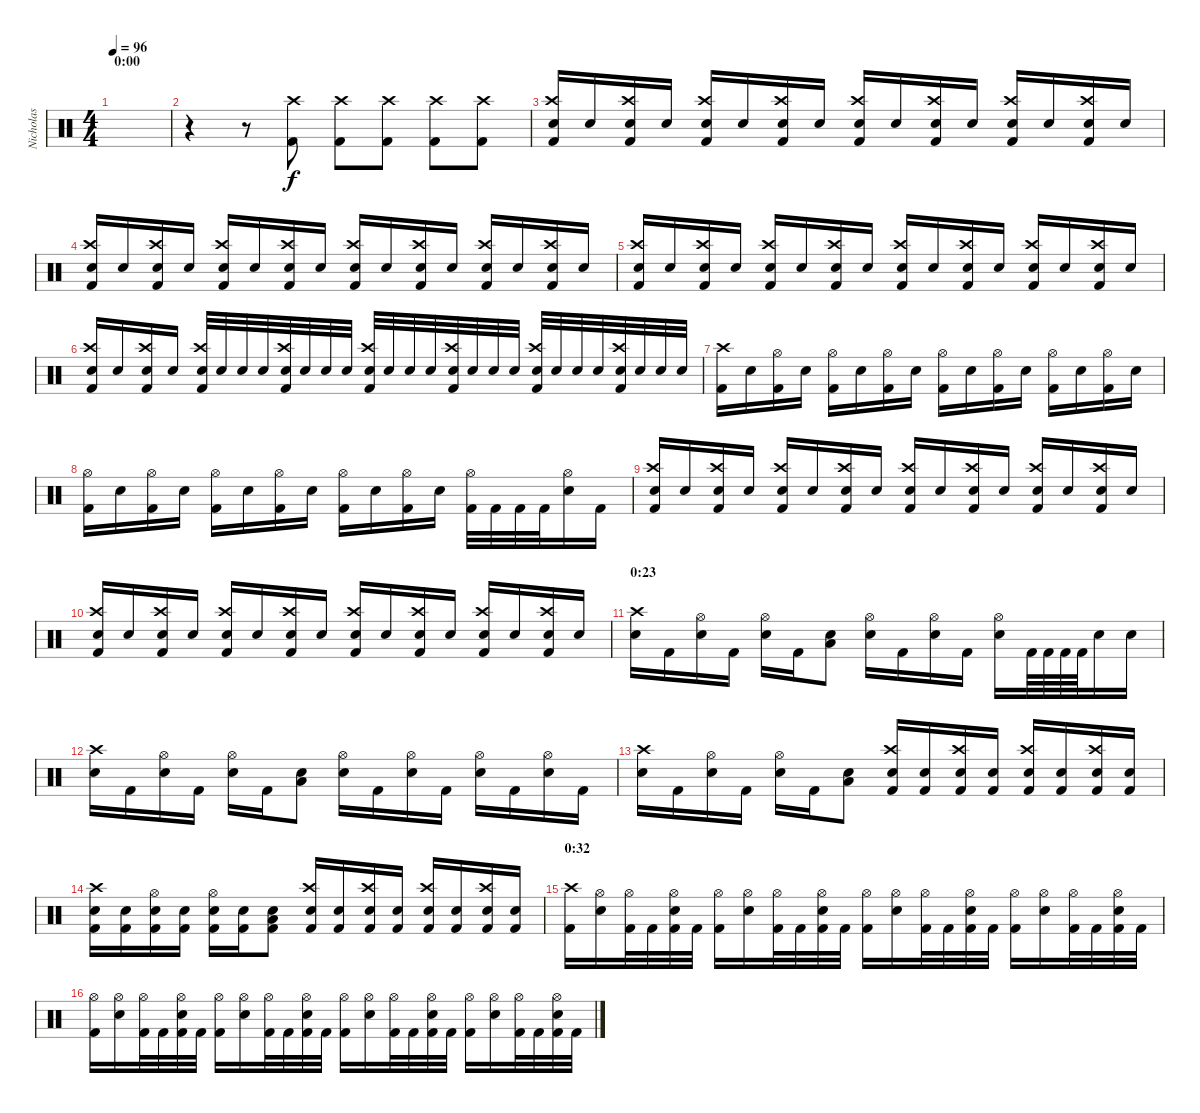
\track ("Nicholas" "Nicholas") {instrument percussion}
\staff {score}
\articulation defaults
\ts (4 4)
\section ("" "0:00")
\tempo 96
\clef neutral
\ks c
|
r.4 r.8 ("Kick (hit) 2" "Crash high (hit)").8 ("Kick (hit) 2" "Crash high (hit)").8 ("Kick (hit) 2" "Crash high (hit)").8 ("Kick (hit) 2" "Crash high (hit)").8 ("Kick (hit) 2" "Crash high (hit)").8 |
("Kick (hit) 2" "Snare (hit) 2" "Crash high (hit)").16 "Snare (hit) 2".16 ("Kick (hit) 2" "Snare (hit) 2" "Crash high (hit)").16 "Snare (hit) 2".16 ("Kick (hit) 2" "Snare (hit) 2" "Crash high (hit)").16 "Snare (hit) 2".16 ("Kick (hit) 2" "Snare (hit) 2" "Crash high (hit)").16 "Snare (hit) 2".16 ("Kick (hit) 2" "Snare (hit) 2" "Crash high (hit)").16 "Snare (hit) 2".16 ("Kick (hit) 2" "Snare (hit) 2" "Crash high (hit)").16 "Snare (hit) 2".16 ("Kick (hit) 2" "Snare (hit) 2" "Crash high (hit)").16 "Snare (hit) 2".16 ("Kick (hit) 2" "Snare (hit) 2" "Crash high (hit)").16 "Snare (hit) 2".16 |
("Kick (hit) 2" "Snare (hit) 2" "Crash high (hit)").16 "Snare (hit) 2".16 ("Kick (hit) 2" "Snare (hit) 2" "Crash high (hit)").16 "Snare (hit) 2".16 ("Kick (hit) 2" "Snare (hit) 2" "Crash high (hit)").16 "Snare (hit) 2".16 ("Kick (hit) 2" "Snare (hit) 2" "Crash high (hit)").16 "Snare (hit) 2".16 ("Kick (hit) 2" "Snare (hit) 2" "Crash high (hit)").16 "Snare (hit) 2".16 ("Kick (hit) 2" "Snare (hit) 2" "Crash high (hit)").16 "Snare (hit) 2".16 ("Kick (hit) 2" "Snare (hit) 2" "Crash high (hit)").16 "Snare (hit) 2".16 ("Kick (hit) 2" "Snare (hit) 2" "Crash high (hit)").16 "Snare (hit) 2".16 |
("Kick (hit) 2" "Snare (hit) 2" "Crash high (hit)").16 "Snare (hit) 2".16 ("Kick (hit) 2" "Snare (hit) 2" "Crash high (hit)").16 "Snare (hit) 2".16 ("Kick (hit) 2" "Snare (hit) 2" "Crash high (hit)").16 "Snare (hit) 2".16 ("Kick (hit) 2" "Snare (hit) 2" "Crash high (hit)").16 "Snare (hit) 2".16 ("Kick (hit) 2" "Snare (hit) 2" "Crash high (hit)").16 "Snare (hit) 2".16 ("Kick (hit) 2" "Snare (hit) 2" "Crash high (hit)").16 "Snare (hit) 2".16 ("Kick (hit) 2" "Snare (hit) 2" "Crash high (hit)").16 "Snare (hit) 2".16 ("Kick (hit) 2" "Snare (hit) 2" "Crash high (hit)").16 "Snare (hit) 2".16 |
("Kick (hit) 2" "Snare (hit) 2" "Crash high (hit)").16 "Snare (hit) 2".16 ("Kick (hit) 2" "Snare (hit) 2" "Crash high (hit)").16 "Snare (hit) 2".16 ("Kick (hit) 2" "Snare (hit) 2" "Crash high (hit)").32 "Snare (hit) 2".32 "Snare (hit) 2".32 "Snare (hit) 2".32 ("Kick (hit) 2" "Snare (hit) 2" "Crash high (hit)").32 "Snare (hit) 2".32 "Snare (hit) 2".32 "Snare (hit) 2".32 ("Kick (hit) 2" "Snare (hit) 2" "Crash high (hit)").32 "Snare (hit) 2".32 "Snare (hit) 2".32 "Snare (hit) 2".32 ("Kick (hit) 2" "Snare (hit) 2" "Crash high (hit)").32 "Snare (hit) 2".32 "Snare (hit) 2".32 "Snare (hit) 2".32 ("Kick (hit) 2" "Snare (hit) 2" "Crash high (hit)").32 "Snare (hit) 2".32 "Snare (hit) 2".32 "Snare (hit) 2".32 ("Kick (hit) 2" "Snare (hit) 2" "Crash high (hit)").32 "Snare (hit) 2".32 "Snare (hit) 2".32 "Snare (hit) 2".32 |
("Kick (hit) 2" "Crash high (hit)").16 "Snare (hit) 2".16 ("Kick (hit) 2" "Hi-Hat (open)").16 "Snare (hit) 2".16 ("Kick (hit) 2" "Hi-Hat (open)").16 "Snare (hit) 2".16 ("Kick (hit) 2" "Hi-Hat (open)").16 "Snare (hit) 2".16 ("Kick (hit) 2" "Hi-Hat (open)").16 "Snare (hit) 2".16 ("Kick (hit) 2" "Hi-Hat (open)").16 "Snare (hit) 2".16 ("Kick (hit) 2" "Hi-Hat (open)").16 "Snare (hit) 2".16 ("Kick (hit) 2" "Hi-Hat (open)").16 "Snare (hit) 2".16 |
("Kick (hit) 2" "Hi-Hat (open)").16 "Snare (hit) 2".16 ("Kick (hit) 2" "Hi-Hat (open)").16 "Snare (hit) 2".16 ("Kick (hit) 2" "Hi-Hat (open)").16 "Snare (hit) 2".16 ("Kick (hit) 2" "Hi-Hat (open)").16 "Snare (hit) 2".16 ("Kick (hit) 2" "Hi-Hat (open)").16 "Snare (hit) 2".16 ("Kick (hit) 2" "Hi-Hat (open)").16 "Snare (hit) 2".16 ("Kick (hit) 2" "Hi-Hat (open)").32 "Kick (hit) 2".32 "Kick (hit) 2".32 "Kick (hit) 2".32 ("Snare (hit) 2" "Hi-Hat (open)").16 "Kick (hit) 2".16 |
("Kick (hit) 2" "Snare (hit) 2" "Crash high (hit)").16 "Snare (hit) 2".16 ("Kick (hit) 2" "Snare (hit) 2" "Crash high (hit)").16 "Snare (hit) 2".16 ("Kick (hit) 2" "Snare (hit) 2" "Crash high (hit)").16 "Snare (hit) 2".16 ("Kick (hit) 2" "Snare (hit) 2" "Crash high (hit)").16 "Snare (hit) 2".16 ("Kick (hit) 2" "Snare (hit) 2" "Crash high (hit)").16 "Snare (hit) 2".16 ("Kick (hit) 2" "Snare (hit) 2" "Crash high (hit)").16 "Snare (hit) 2".16 ("Kick (hit) 2" "Snare (hit) 2" "Crash high (hit)").16 "Snare (hit) 2".16 ("Kick (hit) 2" "Snare (hit) 2" "Crash high (hit)").16 "Snare (hit) 2".16 |
("Kick (hit) 2" "Snare (hit) 2" "Crash high (hit)").16 "Snare (hit) 2".16 ("Kick (hit) 2" "Snare (hit) 2" "Crash high (hit)").16 "Snare (hit) 2".16 ("Kick (hit) 2" "Snare (hit) 2" "Crash high (hit)").16 "Snare (hit) 2".16 ("Kick (hit) 2" "Snare (hit) 2" "Crash high (hit)").16 "Snare (hit) 2".16 ("Kick (hit) 2" "Snare (hit) 2" "Crash high (hit)").16 "Snare (hit) 2".16 ("Kick (hit) 2" "Snare (hit) 2" "Crash high (hit)").16 "Snare (hit) 2".16 ("Kick (hit) 2" "Snare (hit) 2" "Crash high (hit)").16 "Snare (hit) 2".16 ("Kick (hit) 2" "Snare (hit) 2" "Crash high (hit)").16 "Snare (hit) 2".16 |
\section ("" "0:23")
("Snare (hit) 2" "Crash high (hit)").16 "Kick (hit) 2".16 ("Snare (hit) 2" "Hi-Hat (open)").16 "Kick (hit) 2".16 ("Snare (hit) 2" "Hi-Hat (open)").16 "Kick (hit) 2".16 ("Snare (hit) 2" "Low Tom (hit)").8 ("Snare (hit) 2" "Hi-Hat (open)").16 "Kick (hit) 2".16 ("Snare (hit) 2" "Hi-Hat (open)").16 "Kick (hit) 2".16 ("Snare (hit) 2" "Hi-Hat (open)").16 "Kick (hit) 2".64 "Kick (hit) 2".64 "Kick (hit) 2".64 "Kick (hit) 2".64 "Snare (hit) 2".16 "Snare (hit) 2".16 |
("Snare (hit) 2" "Crash high (hit)").16 "Kick (hit) 2".16 ("Snare (hit) 2" "Hi-Hat (open)").16 "Kick (hit) 2".16 ("Snare (hit) 2" "Hi-Hat (open)").16 "Kick (hit) 2".16 ("Snare (hit) 2" "Low Tom (hit)").8 ("Snare (hit) 2" "Hi-Hat (open)").16 "Kick (hit) 2".16 ("Snare (hit) 2" "Hi-Hat (open)").16 "Kick (hit) 2".16 ("Snare (hit) 2" "Hi-Hat (open)").16 "Kick (hit) 2".16 ("Snare (hit) 2" "Hi-Hat (open)").16 "Kick (hit) 2".16 |
("Snare (hit) 2" "Crash high (hit)").16 "Kick (hit) 2".16 ("Snare (hit) 2" "Hi-Hat (open)").16 "Kick (hit) 2".16 ("Snare (hit) 2" "Hi-Hat (open)").16 "Kick (hit) 2".16 ("Snare (hit) 2" "Low Tom (hit)").8 ("Kick (hit) 2" "Snare (hit) 2" "Crash high (hit)").16 ("Kick (hit) 2" "Snare (hit) 2").16 ("Kick (hit) 2" "Snare (hit) 2" "Crash high (hit)").16 ("Kick (hit) 2" "Snare (hit) 2").16 ("Kick (hit) 2" "Snare (hit) 2" "Crash high (hit)").16 ("Kick (hit) 2" "Snare (hit) 2").16 ("Kick (hit) 2" "Snare (hit) 2" "Crash high (hit)").16 ("Kick (hit) 2" "Snare (hit) 2").16 |
("Kick (hit) 2" "Snare (hit) 2" "Crash high (hit)").16 ("Kick (hit) 2" "Snare (hit) 2").16 ("Kick (hit) 2" "Snare (hit) 2" "Hi-Hat (open)").16 ("Kick (hit) 2" "Snare (hit) 2").16 ("Kick (hit) 2" "Snare (hit) 2" "Hi-Hat (open)").16 ("Kick (hit) 2" "Snare (hit) 2").16 ("Kick (hit) 2" "Snare (hit) 2" "Low Tom (hit)").8 ("Kick (hit) 2" "Snare (hit) 2" "Crash high (hit)").16 ("Kick (hit) 2" "Snare (hit) 2").16 ("Kick (hit) 2" "Snare (hit) 2" "Crash high (hit)").16 ("Kick (hit) 2" "Snare (hit) 2").16 ("Kick (hit) 2" "Snare (hit) 2" "Crash high (hit)").16 ("Kick (hit) 2" "Snare (hit) 2").16 ("Kick (hit) 2" "Snare (hit) 2" "Crash high (hit)").16 ("Kick (hit) 2" "Snare (hit) 2").16 |
\section ("" "0:32")
("Kick (hit) 2" "Crash high (hit)").16 ("Snare (hit) 2" "Hi-Hat (open)").16 ("Kick (hit) 2" "Hi-Hat (open)").32 "Kick (hit) 2".32 ("Kick (hit) 2" "Snare (hit) 2" "Hi-Hat (open)").32 "Kick (hit) 2".32 ("Kick (hit) 2" "Hi-Hat (open)").16 ("Snare (hit) 2" "Hi-Hat (open)").16 ("Kick (hit) 2" "Hi-Hat (open)").32 "Kick (hit) 2".32 ("Kick (hit) 2" "Snare (hit) 2" "Hi-Hat (open)").32 "Kick (hit) 2".32 ("Kick (hit) 2" "Hi-Hat (open)").16 ("Snare (hit) 2" "Hi-Hat (open)").16 ("Kick (hit) 2" "Hi-Hat (open)").32 "Kick (hit) 2".32 ("Kick (hit) 2" "Snare (hit) 2" "Hi-Hat (open)").32 "Kick (hit) 2".32 ("Kick (hit) 2" "Hi-Hat (open)").16 ("Snare (hit) 2" "Hi-Hat (open)").16 ("Kick (hit) 2" "Hi-Hat (open)").32 "Kick (hit) 2".32 ("Kick (hit) 2" "Snare (hit) 2" "Hi-Hat (open)").32 "Kick (hit) 2".32 |
("Kick (hit) 2" "Hi-Hat (open)").16 ("Snare (hit) 2" "Hi-Hat (open)").16 ("Kick (hit) 2" "Hi-Hat (open)").32 "Kick (hit) 2".32 ("Kick (hit) 2" "Snare (hit) 2" "Hi-Hat (open)").32 "Kick (hit) 2".32 ("Kick (hit) 2" "Hi-Hat (open)").16 ("Snare (hit) 2" "Hi-Hat (open)").16 ("Kick (hit) 2" "Hi-Hat (open)").32 "Kick (hit) 2".32 ("Kick (hit) 2" "Snare (hit) 2" "Hi-Hat (open)").32 "Kick (hit) 2".32 ("Kick (hit) 2" "Hi-Hat (open)").16 ("Snare (hit) 2" "Hi-Hat (open)").16 ("Kick (hit) 2" "Hi-Hat (open)").32 "Kick (hit) 2".32 ("Kick (hit) 2" "Snare (hit) 2" "Hi-Hat (open)").32 "Kick (hit) 2".32 ("Kick (hit) 2" "Hi-Hat (open)").16 ("Snare (hit) 2" "Hi-Hat (open)").16 ("Kick (hit) 2" "Hi-Hat (open)").32 "Kick (hit) 2".32 ("Kick (hit) 2" "Snare (hit) 2" "Hi-Hat (open)").32 "Kick (hit) 2".32
